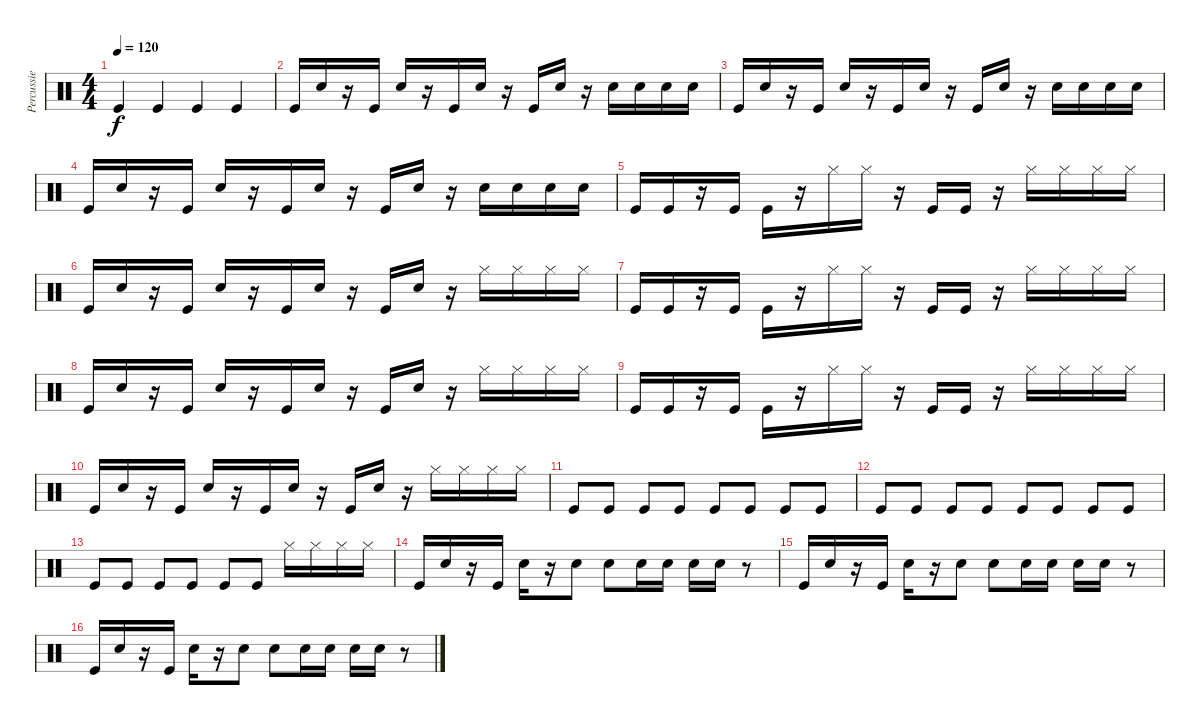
\track ("Percussie" "Percussie") {instrument percussion}
\staff {score}
\articulation defaults
\ts (4 4)
\tempo 120
\clef neutral
\ks c "Kick (hit)".4{dy f} "Kick (hit)".4 "Kick (hit)".4 "Kick (hit)".4
|
"Kick (hit)".16 "Snare (hit) 2".16 r.16 "Kick (hit)".16 "Snare (hit) 2".16 r.16 "Kick (hit)".16 "Snare (hit) 2".16 r.16 "Kick (hit)".16 "Snare (hit) 2".16 r.16 "Snare (hit) 2".16 "Snare (hit) 2".16 "Snare (hit) 2".16 "Snare (hit) 2".16 |
"Kick (hit)".16 "Snare (hit) 2".16 r.16 "Kick (hit)".16 "Snare (hit) 2".16 r.16 "Kick (hit)".16 "Snare (hit) 2".16 r.16 "Kick (hit)".16 "Snare (hit) 2".16 r.16 "Snare (hit) 2".16 "Snare (hit) 2".16 "Snare (hit) 2".16 "Snare (hit) 2".16 |
"Kick (hit)".16 "Snare (hit) 2".16 r.16 "Kick (hit)".16 "Snare (hit) 2".16 r.16 "Kick (hit)".16 "Snare (hit) 2".16 r.16 "Kick (hit)".16 "Snare (hit) 2".16 r.16 "Snare (hit) 2".16 "Snare (hit) 2".16 "Snare (hit) 2".16 "Snare (hit) 2".16 |
"Kick (hit)".16 "Kick (hit)".16 r.16 "Kick (hit)".16 "Kick (hit)".16 r.16 "Hi-Hat (closed)".16 "Hi-Hat (closed)".16 r.16 "Kick (hit)".16 "Kick (hit)".16 r.16 "Hi-Hat (closed)".16 "Hi-Hat (closed)".16 "Hi-Hat (closed)".16 "Hi-Hat (closed)".16 |
"Kick (hit)".16 "Snare (hit) 2".16 r.16 "Kick (hit)".16 "Snare (hit) 2".16 r.16 "Kick (hit)".16 "Snare (hit) 2".16 r.16 "Kick (hit)".16 "Snare (hit) 2".16 r.16 "Hi-Hat (closed)".16 "Hi-Hat (closed)".16 "Hi-Hat (closed)".16 "Hi-Hat (closed)".16 |
"Kick (hit)".16 "Kick (hit)".16 r.16 "Kick (hit)".16 "Kick (hit)".16 r.16 "Hi-Hat (closed)".16 "Hi-Hat (closed)".16 r.16 "Kick (hit)".16 "Kick (hit)".16 r.16 "Hi-Hat (closed)".16 "Hi-Hat (closed)".16 "Hi-Hat (closed)".16 "Hi-Hat (closed)".16 |
"Kick (hit)".16 "Snare (hit) 2".16 r.16 "Kick (hit)".16 "Snare (hit) 2".16 r.16 "Kick (hit)".16 "Snare (hit) 2".16 r.16 "Kick (hit)".16 "Snare (hit) 2".16 r.16 "Hi-Hat (closed)".16 "Hi-Hat (closed)".16 "Hi-Hat (closed)".16 "Hi-Hat (closed)".16 |
"Kick (hit)".16 "Kick (hit)".16 r.16 "Kick (hit)".16 "Kick (hit)".16 r.16 "Hi-Hat (closed)".16 "Hi-Hat (closed)".16 r.16 "Kick (hit)".16 "Kick (hit)".16 r.16 "Hi-Hat (closed)".16 "Hi-Hat (closed)".16 "Hi-Hat (closed)".16 "Hi-Hat (closed)".16 |
"Kick (hit)".16 "Snare (hit) 2".16 r.16 "Kick (hit)".16 "Snare (hit) 2".16 r.16 "Kick (hit)".16 "Snare (hit) 2".16 r.16 "Kick (hit)".16 "Snare (hit) 2".16 r.16 "Hi-Hat (closed)".16 "Hi-Hat (closed)".16 "Hi-Hat (closed)".16 "Hi-Hat (closed)".16 |
"Kick (hit)".8 "Kick (hit)".8 "Kick (hit)".8 "Kick (hit)".8 "Kick (hit)".8 "Kick (hit)".8 "Kick (hit)".8 "Kick (hit)".8 |
"Kick (hit)".8 "Kick (hit)".8 "Kick (hit)".8 "Kick (hit)".8 "Kick (hit)".8 "Kick (hit)".8 "Kick (hit)".8 "Kick (hit)".8 |
"Kick (hit)".8 "Kick (hit)".8 "Kick (hit)".8 "Kick (hit)".8 "Kick (hit)".8 "Kick (hit)".8 "Hi-Hat (closed)".16 "Hi-Hat (closed)".16 "Hi-Hat (closed)".16 "Hi-Hat (closed)".16 |
"Kick (hit)".16 "Snare (hit) 2".16 r.16 "Kick (hit)".16 "Snare (hit) 2".16 r.16 "Snare (hit) 2".8 "Snare (hit) 2".8 "Snare (hit) 2".16 "Snare (hit) 2".16 "Snare (hit) 2".16 "Snare (hit) 2".16 r.8 |
"Kick (hit)".16 "Snare (hit) 2".16 r.16 "Kick (hit)".16 "Snare (hit) 2".16 r.16 "Snare (hit) 2".8 "Snare (hit) 2".8 "Snare (hit) 2".16 "Snare (hit) 2".16 "Snare (hit) 2".16 "Snare (hit) 2".16 r.8 |
"Kick (hit)".16 "Snare (hit) 2".16 r.16 "Kick (hit)".16 "Snare (hit) 2".16 r.16 "Snare (hit) 2".8 "Snare (hit) 2".8 "Snare (hit) 2".16 "Snare (hit) 2".16 "Snare (hit) 2".16 "Snare (hit) 2".16 r.8
